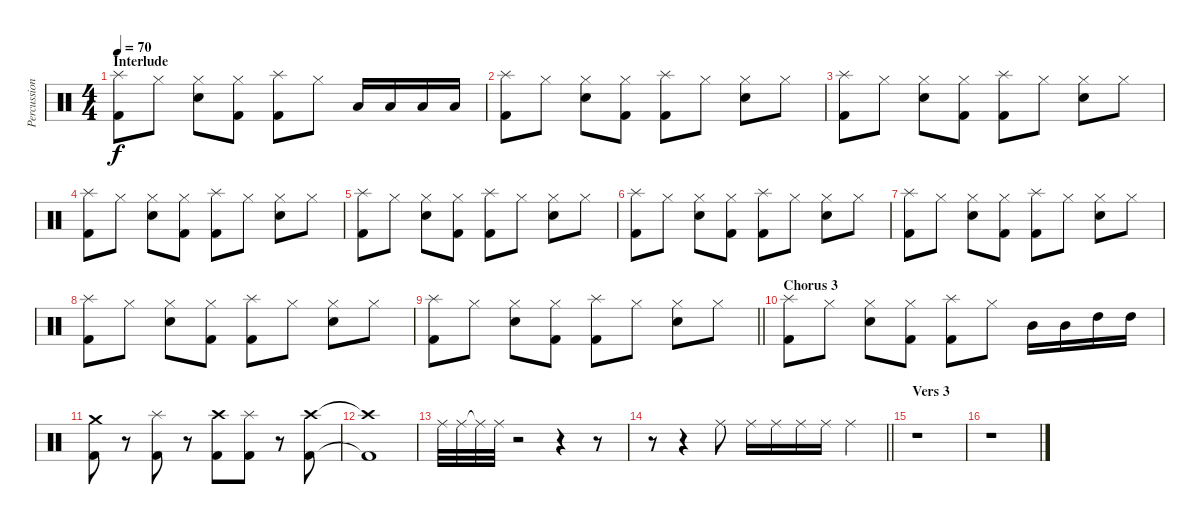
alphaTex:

\track ("Percussion" "Percussion") {instrument percussion}
\staff {score}
\articulation defaults
\ts (4 4)
\section ("" "Interlude")
\tempo 70
\clef neutral
\ks c
("Splash (hit)" "Kick (hit) 2").8{dy f} "Hi-Hat (closed)".8 ("Hi-Hat (closed)" "Snare (hit) 2").8 ("Hi-Hat (closed)" "Kick (hit) 2").8 ("Splash (hit)" "Kick (hit) 2").8 "Hi-Hat (closed)".8 "Low Floor Tom (hit)".16 "Low Floor Tom (hit)".16 "Low Floor Tom (hit)".16 "Low Floor Tom (hit)".16 |
("Splash (hit)" "Kick (hit) 2").8 "Hi-Hat (closed)".8 ("Hi-Hat (closed)" "Snare (hit) 2").8 ("Hi-Hat (closed)" "Kick (hit) 2").8 ("Splash (hit)" "Kick (hit) 2").8 "Hi-Hat (closed)".8 ("Hi-Hat (closed)" "Snare (hit) 2").8 "Hi-Hat (closed)".8 |
("Splash (hit)" "Kick (hit) 2").8 "Hi-Hat (closed)".8 ("Hi-Hat (closed)" "Snare (hit) 2").8 ("Hi-Hat (closed)" "Kick (hit) 2").8 ("Splash (hit)" "Kick (hit) 2").8 "Hi-Hat (closed)".8 ("Hi-Hat (closed)" "Snare (hit) 2").8 "Hi-Hat (closed)".8 |
("Splash (hit)" "Kick (hit) 2").8 "Hi-Hat (closed)".8 ("Hi-Hat (closed)" "Snare (hit) 2").8 ("Hi-Hat (closed)" "Kick (hit) 2").8 ("Splash (hit)" "Kick (hit) 2").8 "Hi-Hat (closed)".8 ("Hi-Hat (closed)" "Snare (hit) 2").8 "Hi-Hat (closed)".8 |
("Splash (hit)" "Kick (hit) 2").8 "Hi-Hat (closed)".8 ("Hi-Hat (closed)" "Snare (hit) 2").8 ("Hi-Hat (closed)" "Kick (hit) 2").8 ("Splash (hit)" "Kick (hit) 2").8 "Hi-Hat (closed)".8 ("Hi-Hat (closed)" "Snare (hit) 2").8 "Hi-Hat (closed)".8 |
("Splash (hit)" "Kick (hit) 2").8 "Hi-Hat (closed)".8 ("Hi-Hat (closed)" "Snare (hit) 2").8 ("Hi-Hat (closed)" "Kick (hit) 2").8 ("Splash (hit)" "Kick (hit) 2").8 "Hi-Hat (closed)".8 ("Hi-Hat (closed)" "Snare (hit) 2").8 "Hi-Hat (closed)".8 |
("Splash (hit)" "Kick (hit) 2").8 "Hi-Hat (closed)".8 ("Hi-Hat (closed)" "Snare (hit) 2").8 ("Hi-Hat (closed)" "Kick (hit) 2").8 ("Splash (hit)" "Kick (hit) 2").8 "Hi-Hat (closed)".8 ("Hi-Hat (closed)" "Snare (hit) 2").8 "Hi-Hat (closed)".8 |
("Splash (hit)" "Kick (hit) 2").8 "Hi-Hat (closed)".8 ("Hi-Hat (closed)" "Snare (hit) 2").8 ("Hi-Hat (closed)" "Kick (hit) 2").8 ("Splash (hit)" "Kick (hit) 2").8 "Hi-Hat (closed)".8 ("Hi-Hat (closed)" "Snare (hit) 2").8 "Hi-Hat (closed)".8 |
\barLineRight lightlight
("Splash (hit)" "Kick (hit) 2").8 "Hi-Hat (closed)".8 ("Hi-Hat (closed)" "Snare (hit) 2").8 ("Hi-Hat (closed)" "Kick (hit) 2").8 ("Splash (hit)" "Kick (hit) 2").8 "Hi-Hat (closed)".8 ("Hi-Hat (closed)" "Snare (hit) 2").8 "Hi-Hat (closed)".8 |
\section ("" "Chorus 3")
("Splash (hit)" "Kick (hit) 2").8 "Hi-Hat (closed)".8 ("Hi-Hat (closed)" "Snare (hit) 2").8 ("Hi-Hat (closed)" "Kick (hit) 2").8 ("Splash (hit)" "Kick (hit) 2").8 "Hi-Hat (closed)".8 "Mid Tom (hit)".16 "Mid Tom (hit)".16 "High Tom (hit)".16 "High Tom (hit)".16 |
("Crash medium (hit)" "Kick (hit) 2").8 r.8 ("Splash (hit)" "Kick (hit) 2").8 r.8 ("Crash high (hit)" "Kick (hit) 2").8 ("Splash (hit)" "Kick (hit) 2").8 r.8 ("Crash high (hit)" "Kick (hit) 2").8 |
("Crash high (hit)"{t} "Kick (hit) 2"{t}).1 |
"Ride (middle)".32 "Ride (middle)".32 "Ride (middle)"{t}.32 "Ride (middle)".32 r.2 r.4 r.8 |
\barLineRight lightlight
r.8 r.4 "Ride (middle)".8 "Ride (middle)".16 "Ride (middle)".16 "Ride (middle)".16 "Ride (middle)".16 "Ride (middle)".4 |
\section ("" "Vers 3")
r.1 |
r.1
